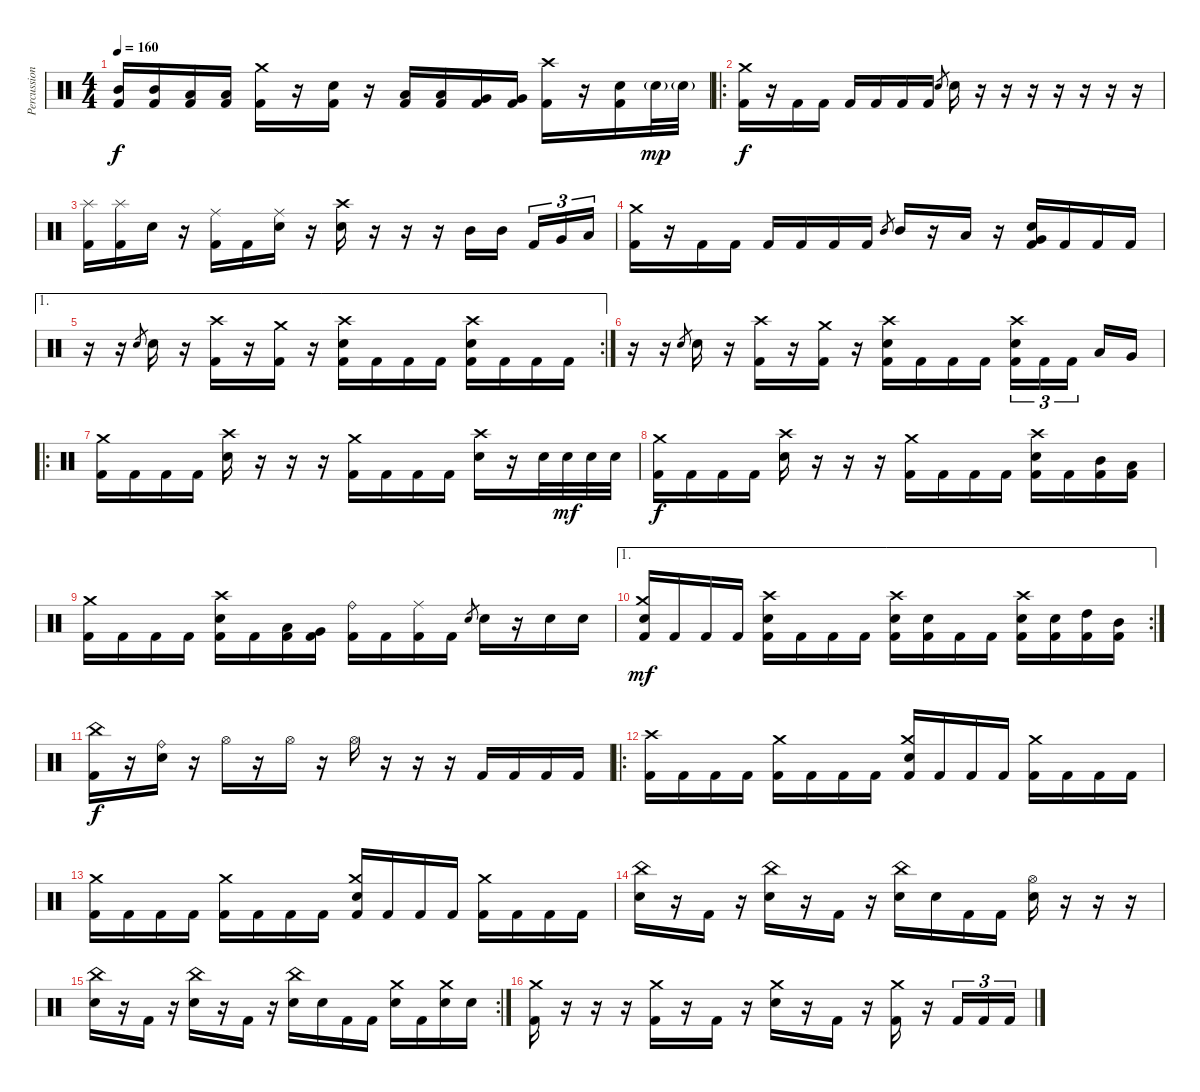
\track ("Percussion" "Percussion") {instrument percussion}
\staff {score}
\articulation defaults
\ts (4 4)
\tempo 160
\clef neutral
\ks c
("Mid Tom (hit)" "Kick (hit) 2").16{dy f} ("Mid Tom (hit)" "Kick (hit) 2").16 ("Low Tom (hit)" "Kick (hit) 2").16 ("Low Tom (hit)" "Kick (hit) 2").16 ("Crash medium (hit)" "Kick (hit) 2").16 r.16 ("Electric Snare (hit)" "Kick (hit) 2").16 r.16 ("Low Tom (hit)" "Kick (hit) 2").16 ("Low Tom (hit)" "Kick (hit) 2").16 ("Very Low Tom (hit)" "Kick (hit) 2").16 ("Very Low Tom (hit)" "Kick (hit) 2").16 ("Crash high (hit)" "Kick (hit) 2").16 r.16 ("Electric Snare (hit)" "Kick (hit) 2").16 "Electric Snare (hit)"{g}.32{dy mp} "Electric Snare (hit)"{g}.32 |
\ro
("Crash medium (hit)" "Kick (hit) 2").16{dy f} r.16 "Kick (hit) 2".16 "Kick (hit) 2".16 "Kick (hit) 2".16 "Kick (hit) 2".16 "Kick (hit) 2".16 "Kick (hit) 2".16 "Electric Snare (hit)".8{gr} "Electric Snare (hit)".16 r.16 r.16 r.16 r.16 r.16 r.16 r.16 |
("Splash (hit)" "Kick (hit) 2").16 ("Splash (hit)" "Kick (hit) 2").16 "Electric Snare (hit)".16 r.16 ("Ride (middle)" "Kick (hit) 2").16 "Kick (hit) 2".16 ("Ride (middle)" "Electric Snare (hit)").16 r.16 ("Crash high (hit)" "Electric Snare (hit)").16 r.16 r.16 r.16 "Mid Tom (hit)".16 "Mid Tom (hit)".16 "Kick (hit) 2".16{tu (3 2)} "Very Low Tom (hit)".16{tu (3 2)} "Low Tom (hit)".16{tu (3 2)} |
("Crash medium (hit)" "Kick (hit) 2").16 r.16 "Kick (hit) 2".16 "Kick (hit) 2".16 "Kick (hit) 2".16 "Kick (hit) 2".16 "Kick (hit) 2".16 "Kick (hit) 2".16 "Mid Tom (hit)".8{gr} "Mid Tom (hit)".16 r.16 "Low Tom (hit)".16 r.16 ("Very Low Tom (hit)" "Electric Snare (hit)" "Kick (hit) 2").16 "Kick (hit) 2".16 "Kick (hit) 2".16 "Kick (hit) 2".16 |
\ae 1
\rc 2
r.16 r.16 "Electric Snare (hit)".8{gr} "Electric Snare (hit)".16 r.16 ("Crash high (hit)" "Kick (hit) 2").16 r.16 ("Crash medium (hit)" "Kick (hit) 2").16 r.16 ("Crash high (hit)" "Electric Snare (hit)" "Kick (hit) 2").16 "Kick (hit) 2".16 "Kick (hit) 2".16 "Kick (hit) 2".16 ("Crash high (hit)" "Electric Snare (hit)" "Kick (hit) 2").16 "Kick (hit) 2".16 "Kick (hit) 2".16 "Kick (hit) 2".16 |
r.16 r.16 "Electric Snare (hit)".8{gr} "Electric Snare (hit)".16 r.16 ("Crash high (hit)" "Kick (hit) 2").16 r.16 ("Crash medium (hit)" "Kick (hit) 2").16 r.16 ("Crash high (hit)" "Electric Snare (hit)" "Kick (hit) 2").16 "Kick (hit) 2".16 "Kick (hit) 2".16 "Kick (hit) 2".16 ("Crash high (hit)" "Electric Snare (hit)" "Kick (hit) 2").16{tu (3 2)} "Kick (hit) 2".16{tu (3 2)} "Kick (hit) 2".16{tu (3 2)} "Low Tom (hit)".16 "Very Low Tom (hit)".16 |
\ro
("Crash medium (hit)" "Kick (hit) 2").16 "Kick (hit) 2".16 "Kick (hit) 2".16 "Kick (hit) 2".16 ("Crash high (hit)" "Electric Snare (hit)").16 r.16 r.16 r.16 ("Crash medium (hit)" "Kick (hit) 2").16 "Kick (hit) 2".16 "Kick (hit) 2".16 "Kick (hit) 2".16 ("Crash high (hit)" "Electric Snare (hit)").16 r.16 "Electric Snare (hit)".32 "Electric Snare (hit)".32{dy mf} "Electric Snare (hit)".32 "Electric Snare (hit)".32 |
("Crash medium (hit)" "Kick (hit) 2").16{dy f} "Kick (hit) 2".16 "Kick (hit) 2".16 "Kick (hit) 2".16 ("Crash high (hit)" "Electric Snare (hit)").16 r.16 r.16 r.16 ("Crash medium (hit)" "Kick (hit) 2").16 "Kick (hit) 2".16 "Kick (hit) 2".16 "Kick (hit) 2".16 ("Crash high (hit)" "Electric Snare (hit)" "Kick (hit) 2").16 "Kick (hit) 2".16 ("Mid Tom (hit)" "Kick (hit) 2").16 ("Low Tom (hit)" "Kick (hit) 2").16 |
("Crash medium (hit)" "Kick (hit) 2").16 "Kick (hit) 2".16 "Kick (hit) 2".16 "Kick (hit) 2".16 ("Crash high (hit)" "Electric Snare (hit)" "Kick (hit) 2").16 "Kick (hit) 2".16 ("Low Tom (hit)" "Kick (hit) 2").16 ("Very Low Tom (hit)" "Kick (hit) 2").16 ("Ride (bell)" "Kick (hit) 2").16 "Kick (hit) 2".16 ("Ride (middle)" "Kick (hit) 2").16 "Kick (hit) 2".16 "Electric Snare (hit)".8{gr} "Electric Snare (hit)".16 r.16 "Electric Snare (hit)".16 "Electric Snare (hit)".16 |
\ae 1
\rc 2
("Crash medium (hit)" "Electric Snare (hit)" "Kick (hit) 2").16{dy mf} "Kick (hit) 2".16 "Kick (hit) 2".16 "Kick (hit) 2".16 ("Crash high (hit)" "Electric Snare (hit)" "Kick (hit) 2").16 "Kick (hit) 2".16 "Kick (hit) 2".16 "Kick (hit) 2".16 ("Crash high (hit)" "Electric Snare (hit)" "Kick (hit) 2").16 ("Electric Snare (hit)" "Kick (hit) 2").16 "Kick (hit) 2".16 "Kick (hit) 2".16 ("Crash high (hit)" "Electric Snare (hit)" "Kick (hit) 2").16 ("Electric Snare (hit)" "Kick (hit) 2").16 ("High Tom (hit)" "Kick (hit) 2").16 ("Mid Tom (hit)" "Kick (hit) 2").16 |
("China (hit)" "Kick (hit) 2").16{dy f} r.16 ("Ride (bell)" "Electric Snare (hit)").16 r.16 "Hi-Hat (open)".16 r.16 "Hi-Hat (open)".16 r.16 "Hi-Hat (open)".16 r.16 r.16 r.16 "Kick (hit) 2".16 "Kick (hit) 2".16 "Kick (hit) 2".16 "Kick (hit) 2".16 |
\ro
("Crash high (hit)" "Kick (hit) 2").16 "Kick (hit) 2".16 "Kick (hit) 2".16 "Kick (hit) 2".16 ("Crash medium (hit)" "Kick (hit) 2").16 "Kick (hit) 2".16 "Kick (hit) 2".16 "Kick (hit) 2".16 ("Crash medium (hit)" "Electric Snare (hit)" "Kick (hit) 2").16 "Kick (hit) 2".16 "Kick (hit) 2".16 "Kick (hit) 2".16 ("Crash medium (hit)" "Kick (hit) 2").16 "Kick (hit) 2".16 "Kick (hit) 2".16 "Kick (hit) 2".16 |
("Crash medium (hit)" "Kick (hit) 2").16 "Kick (hit) 2".16 "Kick (hit) 2".16 "Kick (hit) 2".16 ("Crash medium (hit)" "Kick (hit) 2").16 "Kick (hit) 2".16 "Kick (hit) 2".16 "Kick (hit) 2".16 ("Crash medium (hit)" "Electric Snare (hit)" "Kick (hit) 2").16 "Kick (hit) 2".16 "Kick (hit) 2".16 "Kick (hit) 2".16 ("Crash medium (hit)" "Kick (hit) 2").16 "Kick (hit) 2".16 "Kick (hit) 2".16 "Kick (hit) 2".16 |
("China (hit)" "Electric Snare (hit)").16 r.16 "Kick (hit) 2".16 r.16 ("China (hit)" "Electric Snare (hit)").16 r.16 "Kick (hit) 2".16 r.16 ("China (hit)" "Electric Snare (hit)").16 "Electric Snare (hit)".16 "Kick (hit) 2".16 "Kick (hit) 2".16 ("Hi-Hat (open)" "Electric Snare (hit)").16 r.16 r.16 r.16 |
\rc 2
("China (hit)" "Electric Snare (hit)").16 r.16 "Kick (hit) 2".16 r.16 ("China (hit)" "Electric Snare (hit)").16 r.16 "Kick (hit) 2".16 r.16 ("China (hit)" "Electric Snare (hit)").16 "Electric Snare (hit)".16 "Kick (hit) 2".16 "Kick (hit) 2".16 ("Crash medium (hit)" "Electric Snare (hit)").16 "Kick (hit) 2".16 ("Crash medium (hit)" "Electric Snare (hit)").16 "Electric Snare (hit)".16 |
("Crash medium (hit)" "Kick (hit) 2").16 r.16 r.16 r.16 ("Crash medium (hit)" "Kick (hit) 2").16 r.16 "Kick (hit) 2".16 r.16 ("Crash medium (hit)" "Electric Snare (hit)").16 r.16 "Kick (hit) 2".16 r.16 ("Crash medium (hit)" "Kick (hit) 2").16 r.16 "Kick (hit) 2".16{tu (3 2)} "Kick (hit) 2".16{tu (3 2)} "Kick (hit) 2".16{tu (3 2)}
